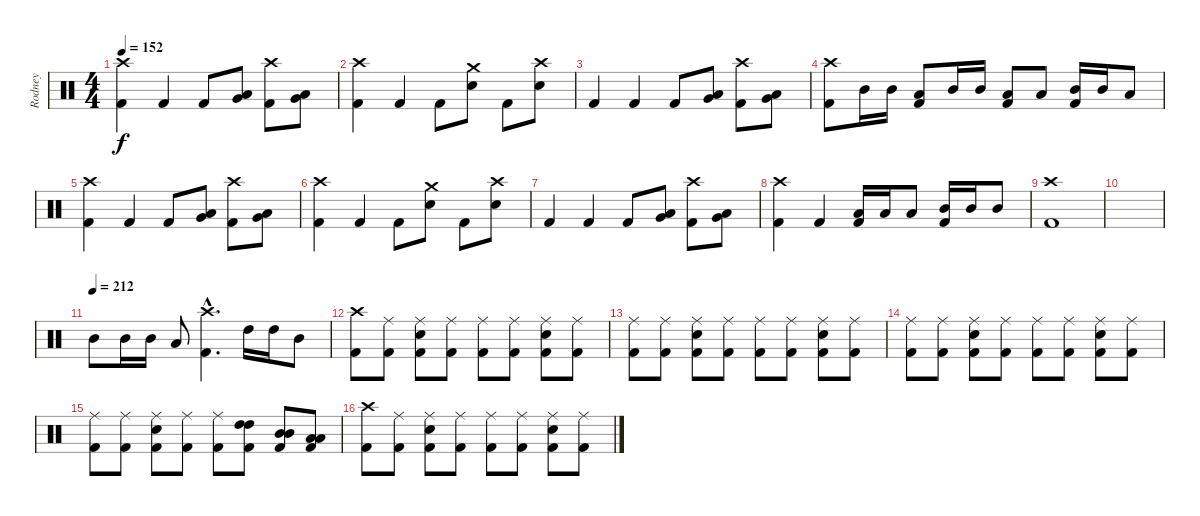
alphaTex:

\track ("Rodney" "Rodney") {instrument percussion}
\staff {score}
\articulation defaults
\ts (4 4)
\tempo 152
\clef neutral
\ks c
("Crash high (hit)" "Kick (hit) 2").4{dy f} "Kick (hit) 2".4 "Kick (hit) 2".8 ("Low Tom (hit)" "Very Low Tom (hit)").8 ("Crash high (hit)" "Kick (hit) 2").8 ("Low Tom (hit)" "Very Low Tom (hit)").8 |
("Crash high (hit)" "Kick (hit) 2").4 "Kick (hit) 2".4 "Kick (hit) 2".8 ("Crash medium (hit)" "Snare (hit) 2").8 "Kick (hit) 2".8 ("Crash high (hit)" "Snare (hit) 2").8 |
"Kick (hit) 2".4 "Kick (hit) 2".4 "Kick (hit) 2".8 ("Low Tom (hit)" "Very Low Tom (hit)").8 ("Crash high (hit)" "Kick (hit) 2").8 ("Low Tom (hit)" "Very Low Tom (hit)").8 |
("Crash high (hit)" "Kick (hit) 2").8 "Mid Tom (hit)".16 "Mid Tom (hit)".16 ("Low Tom (hit)" "Kick (hit) 2").8 "Mid Tom (hit)".16 "Mid Tom (hit)".16 ("Low Tom (hit)" "Kick (hit) 2").8 "Low Tom (hit)".8 ("Mid Tom (hit)" "Kick (hit) 2").16 "Mid Tom (hit)".16 "Low Tom (hit)".8 |
("Crash high (hit)" "Kick (hit) 2").4 "Kick (hit) 2".4 "Kick (hit) 2".8 ("Low Tom (hit)" "Very Low Tom (hit)").8 ("Crash high (hit)" "Kick (hit) 2").8 ("Low Tom (hit)" "Very Low Tom (hit)").8 |
("Crash high (hit)" "Kick (hit) 2").4 "Kick (hit) 2".4 "Kick (hit) 2".8 ("Crash medium (hit)" "Snare (hit) 2").8 "Kick (hit) 2".8 ("Crash high (hit)" "Snare (hit) 2").8 |
"Kick (hit) 2".4 "Kick (hit) 2".4 "Kick (hit) 2".8 ("Low Tom (hit)" "Very Low Tom (hit)").8 ("Crash high (hit)" "Kick (hit) 2").8 ("Low Tom (hit)" "Very Low Tom (hit)").8 |
("Crash high (hit)" "Kick (hit) 2").4 "Kick (hit) 2".4 ("Low Tom (hit)" "Kick (hit) 2").16 "Low Tom (hit)".16 "Low Tom (hit)".8 ("Mid Tom (hit)" "Kick (hit) 2").16 "Mid Tom (hit)".16 "Mid Tom (hit)".8 |
("Crash high (hit)" "Kick (hit) 2").1 |
|
\tempo (212)
"Mid Tom (hit)".8 "Mid Tom (hit)".16 "Mid Tom (hit)".16 "Low Tom (hit)".8 ("Crash high (hit)"{hac} "Kick (hit) 2"{hac}).4{d} "High Tom (hit)".16 "High Tom (hit)".16 "Mid Tom (hit)".8 |
("Crash high (hit)" "Kick (hit) 2").8 ("Ride (middle)" "Kick (hit) 2").8 ("Ride (middle)" "Snare (hit) 2" "Kick (hit) 2").8 ("Ride (middle)" "Kick (hit) 2").8 ("Ride (middle)" "Kick (hit) 2").8 ("Ride (middle)" "Kick (hit) 2").8 ("Ride (middle)" "Snare (hit) 2" "Kick (hit) 2").8 ("Ride (middle)" "Kick (hit) 2").8 |
("Ride (middle)" "Kick (hit) 2").8 ("Ride (middle)" "Kick (hit) 2").8 ("Ride (middle)" "Snare (hit) 2" "Kick (hit) 2").8 ("Ride (middle)" "Kick (hit) 2").8 ("Ride (middle)" "Kick (hit) 2").8 ("Ride (middle)" "Kick (hit) 2").8 ("Ride (middle)" "Snare (hit) 2" "Kick (hit) 2").8 ("Ride (middle)" "Kick (hit) 2").8 |
("Ride (middle)" "Kick (hit) 2").8 ("Ride (middle)" "Kick (hit) 2").8 ("Ride (middle)" "Snare (hit) 2" "Kick (hit) 2").8 ("Ride (middle)" "Kick (hit) 2").8 ("Ride (middle)" "Kick (hit) 2").8 ("Ride (middle)" "Kick (hit) 2").8 ("Ride (middle)" "Snare (hit) 2" "Kick (hit) 2").8 ("Ride (middle)" "Kick (hit) 2").8 |
("Ride (middle)" "Kick (hit) 2").8 ("Ride (middle)" "Kick (hit) 2").8 ("Ride (middle)" "Snare (hit) 2" "Kick (hit) 2").8 ("Ride (middle)" "Kick (hit) 2").8 ("Ride (middle)" "Kick (hit) 2").8 ("High Tom (hit)" "High Tom (hit)" "Kick (hit) 2").8 ("Mid Tom (hit)" "Mid Tom (hit)" "Kick (hit) 2").8 ("Low Tom (hit)" "Low Tom (hit)" "Kick (hit) 2").8 |
("Crash high (hit)" "Kick (hit) 2").8 ("Ride (middle)" "Kick (hit) 2").8 ("Ride (middle)" "Snare (hit) 2" "Kick (hit) 2").8 ("Ride (middle)" "Kick (hit) 2").8 ("Ride (middle)" "Kick (hit) 2").8 ("Ride (middle)" "Kick (hit) 2").8 ("Ride (middle)" "Snare (hit) 2" "Kick (hit) 2").8 ("Ride (middle)" "Kick (hit) 2").8
